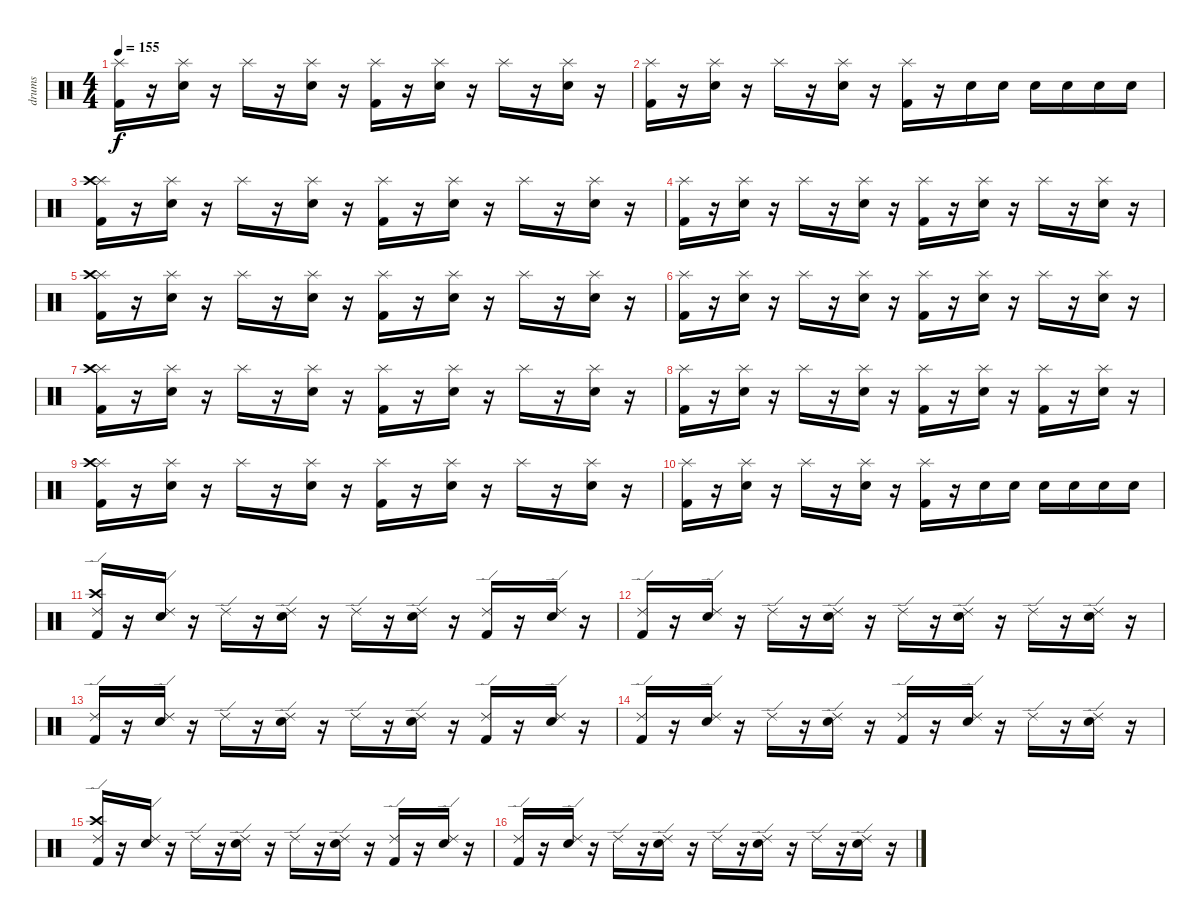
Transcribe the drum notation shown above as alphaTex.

\track ("drums" "drums") {instrument percussion}
\staff {score}
\articulation defaults
\ts (4 4)
\tempo 155
\clef neutral
\ks c
("Splash (hit)" "Kick (hit) 2").16{dy f} r.16 ("Splash (hit)" "Snare (hit) 2").16 r.16 "Splash (hit)".16 r.16 ("Splash (hit)" "Snare (hit) 2").16 r.16 ("Splash (hit)" "Kick (hit) 2").16 r.16 ("Splash (hit)" "Snare (hit) 2").16 r.16 "Splash (hit)".16 r.16 ("Splash (hit)" "Snare (hit) 2").16 r.16 |
("Splash (hit)" "Kick (hit) 2").16 r.16 ("Splash (hit)" "Snare (hit) 2").16 r.16 "Splash (hit)".16 r.16 ("Splash (hit)" "Snare (hit) 2").16 r.16 ("Splash (hit)" "Kick (hit) 2").16 r.16 "Snare (hit) 2".16 "Snare (hit) 2".16 "Snare (hit) 2".16 "Snare (hit) 2".16 "Snare (hit) 2".16 "Snare (hit) 2".16 |
("Splash (hit)" "Crash high (hit)" "Kick (hit) 2").16 r.16 ("Splash (hit)" "Snare (hit) 2").16 r.16 "Splash (hit)".16 r.16 ("Splash (hit)" "Snare (hit) 2").16 r.16 ("Splash (hit)" "Kick (hit) 2").16 r.16 ("Splash (hit)" "Snare (hit) 2").16 r.16 "Splash (hit)".16 r.16 ("Splash (hit)" "Snare (hit) 2").16 r.16 |
("Splash (hit)" "Kick (hit) 2").16 r.16 ("Splash (hit)" "Snare (hit) 2").16 r.16 "Splash (hit)".16 r.16 ("Splash (hit)" "Snare (hit) 2").16 r.16 ("Splash (hit)" "Kick (hit) 2").16 r.16 ("Splash (hit)" "Snare (hit) 2").16 r.16 "Splash (hit)".16 r.16 ("Splash (hit)" "Snare (hit) 2").16 r.16 |
("Splash (hit)" "Crash high (hit)" "Kick (hit) 2").16 r.16 ("Splash (hit)" "Snare (hit) 2").16 r.16 "Splash (hit)".16 r.16 ("Splash (hit)" "Snare (hit) 2").16 r.16 ("Splash (hit)" "Kick (hit) 2").16 r.16 ("Splash (hit)" "Snare (hit) 2").16 r.16 "Splash (hit)".16 r.16 ("Splash (hit)" "Snare (hit) 2").16 r.16 |
("Splash (hit)" "Kick (hit) 2").16 r.16 ("Splash (hit)" "Snare (hit) 2").16 r.16 "Splash (hit)".16 r.16 ("Splash (hit)" "Snare (hit) 2").16 r.16 ("Splash (hit)" "Kick (hit) 2").16 r.16 ("Splash (hit)" "Snare (hit) 2").16 r.16 "Splash (hit)".16 r.16 ("Splash (hit)" "Snare (hit) 2").16 r.16 |
("Splash (hit)" "Crash high (hit)" "Kick (hit) 2").16 r.16 ("Splash (hit)" "Snare (hit) 2").16 r.16 "Splash (hit)".16 r.16 ("Splash (hit)" "Snare (hit) 2").16 r.16 ("Splash (hit)" "Kick (hit) 2").16 r.16 ("Splash (hit)" "Snare (hit) 2").16 r.16 "Splash (hit)".16 r.16 ("Splash (hit)" "Snare (hit) 2").16 r.16 |
("Splash (hit)" "Kick (hit) 2").16 r.16 ("Splash (hit)" "Snare (hit) 2").16 r.16 "Splash (hit)".16 r.16 ("Splash (hit)" "Snare (hit) 2").16 r.16 ("Splash (hit)" "Kick (hit) 2").16 r.16 ("Splash (hit)" "Snare (hit) 2").16 r.16 ("Splash (hit)" "Kick (hit) 2").16 r.16 ("Splash (hit)" "Snare (hit) 2").16 r.16 |
("Splash (hit)" "Crash high (hit)" "Kick (hit) 2").16 r.16 ("Splash (hit)" "Snare (hit) 2").16 r.16 "Splash (hit)".16 r.16 ("Splash (hit)" "Snare (hit) 2").16 r.16 ("Splash (hit)" "Kick (hit) 2").16 r.16 ("Splash (hit)" "Snare (hit) 2").16 r.16 "Splash (hit)".16 r.16 ("Splash (hit)" "Snare (hit) 2").16 r.16 |
("Splash (hit)" "Kick (hit) 2").16 r.16 ("Splash (hit)" "Snare (hit) 2").16 r.16 "Splash (hit)".16 r.16 ("Splash (hit)" "Snare (hit) 2").16 r.16 ("Splash (hit)" "Kick (hit) 2").16 r.16 "Snare (hit) 2".16 "Snare (hit) 2".16 "Snare (hit) 2".16 "Snare (hit) 2".16 "Snare (hit) 2".16 "Snare (hit) 2".16 |
("Ride (edge) 2" "Crash high (hit)" "Kick (hit) 2").16 r.16 ("Ride (edge) 2" "Snare (hit) 2").16 r.16 "Ride (edge) 2".16 r.16 ("Ride (edge) 2" "Snare (hit) 2").16 r.16 "Ride (edge) 2".16 r.16 ("Ride (edge) 2" "Snare (hit) 2").16 r.16 ("Ride (edge) 2" "Kick (hit) 2").16 r.16 ("Ride (edge) 2" "Snare (hit) 2").16 r.16 |
("Ride (edge) 2" "Kick (hit) 2").16 r.16 ("Ride (edge) 2" "Snare (hit) 2").16 r.16 "Ride (edge) 2".16 r.16 ("Ride (edge) 2" "Snare (hit) 2").16 r.16 "Ride (edge) 2".16 r.16 ("Ride (edge) 2" "Snare (hit) 2").16 r.16 "Ride (edge) 2".16 r.16 ("Ride (edge) 2" "Snare (hit) 2").16 r.16 |
("Ride (edge) 2" "Kick (hit) 2").16 r.16 ("Ride (edge) 2" "Snare (hit) 2").16 r.16 "Ride (edge) 2".16 r.16 ("Ride (edge) 2" "Snare (hit) 2").16 r.16 "Ride (edge) 2".16 r.16 ("Ride (edge) 2" "Snare (hit) 2").16 r.16 ("Ride (edge) 2" "Kick (hit) 2").16 r.16 ("Ride (edge) 2" "Snare (hit) 2").16 r.16 |
("Ride (edge) 2" "Kick (hit) 2").16 r.16 ("Ride (edge) 2" "Snare (hit) 2").16 r.16 "Ride (edge) 2".16 r.16 ("Ride (edge) 2" "Snare (hit) 2").16 r.16 ("Ride (edge) 2" "Kick (hit) 2").16 r.16 ("Ride (edge) 2" "Snare (hit) 2").16 r.16 "Ride (edge) 2".16 r.16 ("Ride (edge) 2" "Snare (hit) 2").16 r.16 |
("Ride (edge) 2" "Crash high (hit)" "Kick (hit) 2").16 r.16 ("Ride (edge) 2" "Snare (hit) 2").16 r.16 "Ride (edge) 2".16 r.16 ("Ride (edge) 2" "Snare (hit) 2").16 r.16 "Ride (edge) 2".16 r.16 ("Ride (edge) 2" "Snare (hit) 2").16 r.16 ("Ride (edge) 2" "Kick (hit) 2").16 r.16 ("Ride (edge) 2" "Snare (hit) 2").16 r.16 |
("Ride (edge) 2" "Kick (hit) 2").16 r.16 ("Ride (edge) 2" "Snare (hit) 2").16 r.16 "Ride (edge) 2".16 r.16 ("Ride (edge) 2" "Snare (hit) 2").16 r.16 "Ride (edge) 2".16 r.16 ("Ride (edge) 2" "Snare (hit) 2").16 r.16 "Ride (edge) 2".16 r.16 ("Ride (edge) 2" "Snare (hit) 2").16 r.16
